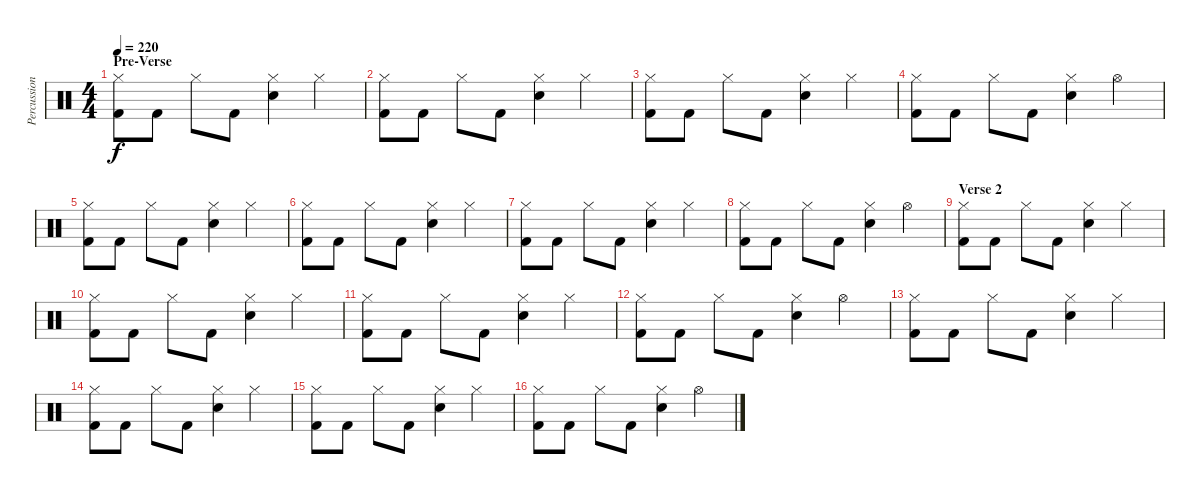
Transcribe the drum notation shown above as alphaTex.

\track ("Percussion" "Percussion") {instrument percussion}
\staff {score}
\articulation defaults
\ts (4 4)
\section ("" "Pre-Verse")
\tempo 220
\clef neutral
\ks c
("Hi-Hat (closed)" "Kick (hit) 2").8{dy f} "Kick (hit) 2".8 "Hi-Hat (closed)".8 "Kick (hit) 2".8 ("Hi-Hat (closed)" "Snare (hit) 2").4 "Hi-Hat (closed)".4 |
("Hi-Hat (closed)" "Kick (hit) 2").8 "Kick (hit) 2".8 "Hi-Hat (closed)".8 "Kick (hit) 2".8 ("Hi-Hat (closed)" "Snare (hit) 2").4 "Hi-Hat (closed)".4 |
("Hi-Hat (closed)" "Kick (hit) 2").8 "Kick (hit) 2".8 "Hi-Hat (closed)".8 "Kick (hit) 2".8 ("Hi-Hat (closed)" "Snare (hit) 2").4 "Hi-Hat (closed)".4 |
("Hi-Hat (closed)" "Kick (hit) 2").8 "Kick (hit) 2".8 "Hi-Hat (closed)".8 "Kick (hit) 2".8 ("Hi-Hat (closed)" "Snare (hit) 2").4 "Hi-Hat (open)".4 |
("Hi-Hat (closed)" "Kick (hit) 2").8 "Kick (hit) 2".8 "Hi-Hat (closed)".8 "Kick (hit) 2".8 ("Hi-Hat (closed)" "Snare (hit) 2").4 "Hi-Hat (closed)".4 |
("Hi-Hat (closed)" "Kick (hit) 2").8 "Kick (hit) 2".8 "Hi-Hat (closed)".8 "Kick (hit) 2".8 ("Hi-Hat (closed)" "Snare (hit) 2").4 "Hi-Hat (closed)".4 |
("Hi-Hat (closed)" "Kick (hit) 2").8 "Kick (hit) 2".8 "Hi-Hat (closed)".8 "Kick (hit) 2".8 ("Hi-Hat (closed)" "Snare (hit) 2").4 "Hi-Hat (closed)".4 |
("Hi-Hat (closed)" "Kick (hit) 2").8 "Kick (hit) 2".8 "Hi-Hat (closed)".8 "Kick (hit) 2".8 ("Hi-Hat (closed)" "Snare (hit) 2").4 "Hi-Hat (open)".4 |
\section ("" "Verse 2")
("Hi-Hat (closed)" "Kick (hit) 2").8 "Kick (hit) 2".8 "Hi-Hat (closed)".8 "Kick (hit) 2".8 ("Hi-Hat (closed)" "Snare (hit) 2").4 "Hi-Hat (closed)".4 |
("Hi-Hat (closed)" "Kick (hit) 2").8 "Kick (hit) 2".8 "Hi-Hat (closed)".8 "Kick (hit) 2".8 ("Hi-Hat (closed)" "Snare (hit) 2").4 "Hi-Hat (closed)".4 |
("Hi-Hat (closed)" "Kick (hit) 2").8 "Kick (hit) 2".8 "Hi-Hat (closed)".8 "Kick (hit) 2".8 ("Hi-Hat (closed)" "Snare (hit) 2").4 "Hi-Hat (closed)".4 |
("Hi-Hat (closed)" "Kick (hit) 2").8 "Kick (hit) 2".8 "Hi-Hat (closed)".8 "Kick (hit) 2".8 ("Hi-Hat (closed)" "Snare (hit) 2").4 "Hi-Hat (open)".4 |
("Hi-Hat (closed)" "Kick (hit) 2").8 "Kick (hit) 2".8 "Hi-Hat (closed)".8 "Kick (hit) 2".8 ("Hi-Hat (closed)" "Snare (hit) 2").4 "Hi-Hat (closed)".4 |
("Hi-Hat (closed)" "Kick (hit) 2").8 "Kick (hit) 2".8 "Hi-Hat (closed)".8 "Kick (hit) 2".8 ("Hi-Hat (closed)" "Snare (hit) 2").4 "Hi-Hat (closed)".4 |
("Hi-Hat (closed)" "Kick (hit) 2").8 "Kick (hit) 2".8 "Hi-Hat (closed)".8 "Kick (hit) 2".8 ("Hi-Hat (closed)" "Snare (hit) 2").4 "Hi-Hat (closed)".4 |
("Hi-Hat (closed)" "Kick (hit) 2").8 "Kick (hit) 2".8 "Hi-Hat (closed)".8 "Kick (hit) 2".8 ("Hi-Hat (closed)" "Snare (hit) 2").4 "Hi-Hat (open)".4
